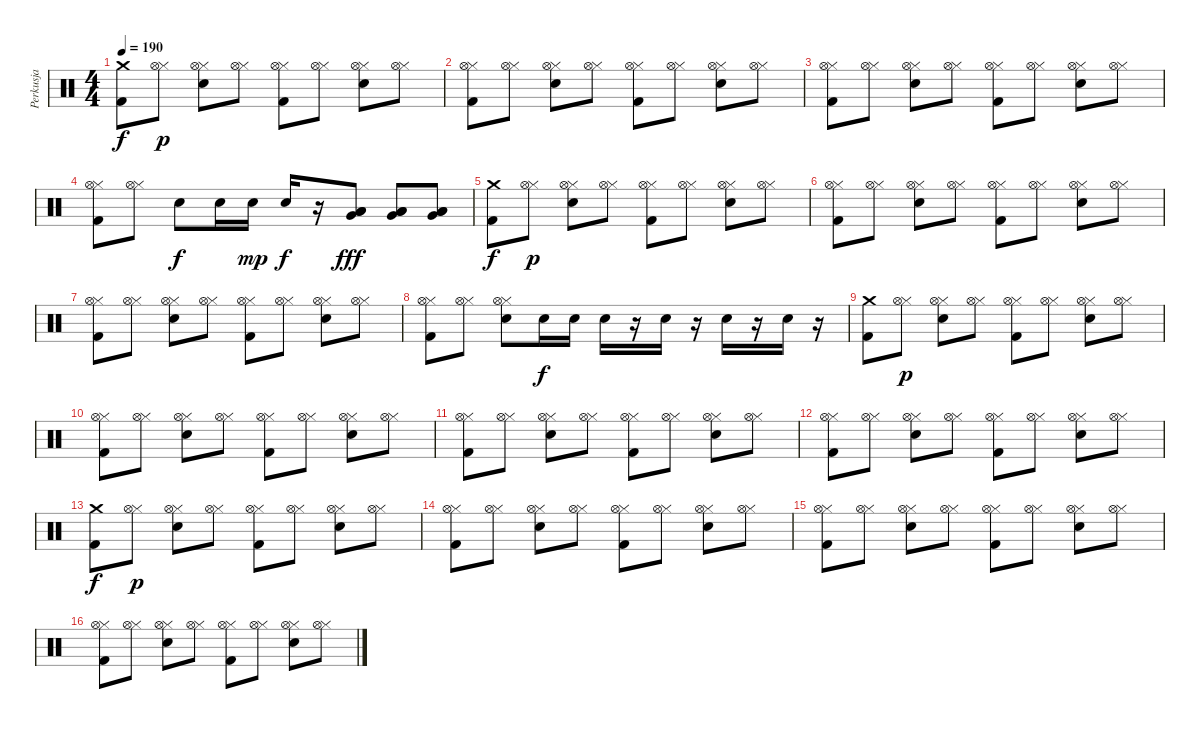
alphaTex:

\track ("Perkusja" "Perkusja") {instrument percussion}
\staff {score}
\articulation defaults
\ts (4 4)
\tempo 190
\clef neutral
\ks c
("Kick (hit) 2" "Crash medium (hit)").8{dy f} ("Hi-Hat (closed)" "Hi-Hat (open)").8{dy p} ("Electric Snare (hit)" "Hi-Hat (closed)" "Hi-Hat (open)").8 ("Hi-Hat (closed)" "Hi-Hat (open)").8 ("Kick (hit) 2" "Hi-Hat (closed)" "Hi-Hat (open)").8 ("Hi-Hat (closed)" "Hi-Hat (open)").8 ("Electric Snare (hit)" "Hi-Hat (closed)" "Hi-Hat (open)").8 ("Hi-Hat (closed)" "Hi-Hat (open)").8 |
("Kick (hit) 2" "Hi-Hat (closed)" "Hi-Hat (open)").8 ("Hi-Hat (closed)" "Hi-Hat (open)").8 ("Electric Snare (hit)" "Hi-Hat (closed)" "Hi-Hat (open)").8 ("Hi-Hat (closed)" "Hi-Hat (open)").8 ("Kick (hit) 2" "Hi-Hat (closed)" "Hi-Hat (open)").8 ("Hi-Hat (closed)" "Hi-Hat (open)").8 ("Electric Snare (hit)" "Hi-Hat (closed)" "Hi-Hat (open)").8 ("Hi-Hat (closed)" "Hi-Hat (open)").8 |
("Kick (hit) 2" "Hi-Hat (closed)" "Hi-Hat (open)").8 ("Hi-Hat (closed)" "Hi-Hat (open)").8 ("Electric Snare (hit)" "Hi-Hat (closed)" "Hi-Hat (open)").8 ("Hi-Hat (closed)" "Hi-Hat (open)").8 ("Kick (hit) 2" "Hi-Hat (closed)" "Hi-Hat (open)").8 ("Hi-Hat (closed)" "Hi-Hat (open)").8 ("Electric Snare (hit)" "Hi-Hat (closed)" "Hi-Hat (open)").8 ("Hi-Hat (closed)" "Hi-Hat (open)").8 |
("Kick (hit) 2" "Hi-Hat (closed)" "Hi-Hat (open)").8 ("Hi-Hat (closed)" "Hi-Hat (open)").8 "Electric Snare (hit)".8{dy f} "Electric Snare (hit)".16 "Electric Snare (hit)".16{dy mp} "Electric Snare (hit)".16{dy f} r.16 ("Very Low Tom (hit)" "Low Tom (hit)" "Low Floor Tom (hit)").8{dy fff} ("Very Low Tom (hit)" "Low Tom (hit)" "Low Floor Tom (hit)").8 ("Very Low Tom (hit)" "Low Tom (hit)" "Low Floor Tom (hit)").8 |
("Kick (hit) 2" "Crash medium (hit)").8{dy f} ("Hi-Hat (closed)" "Hi-Hat (open)").8{dy p} ("Electric Snare (hit)" "Hi-Hat (closed)" "Hi-Hat (open)").8 ("Hi-Hat (closed)" "Hi-Hat (open)").8 ("Kick (hit) 2" "Hi-Hat (closed)" "Hi-Hat (open)").8 ("Hi-Hat (closed)" "Hi-Hat (open)").8 ("Electric Snare (hit)" "Hi-Hat (closed)" "Hi-Hat (open)").8 ("Hi-Hat (closed)" "Hi-Hat (open)").8 |
("Kick (hit) 2" "Hi-Hat (closed)" "Hi-Hat (open)").8 ("Hi-Hat (closed)" "Hi-Hat (open)").8 ("Electric Snare (hit)" "Hi-Hat (closed)" "Hi-Hat (open)").8 ("Hi-Hat (closed)" "Hi-Hat (open)").8 ("Kick (hit) 2" "Hi-Hat (closed)" "Hi-Hat (open)").8 ("Hi-Hat (closed)" "Hi-Hat (open)").8 ("Electric Snare (hit)" "Hi-Hat (closed)" "Hi-Hat (open)").8 ("Hi-Hat (closed)" "Hi-Hat (open)").8 |
("Kick (hit) 2" "Hi-Hat (closed)" "Hi-Hat (open)").8 ("Hi-Hat (closed)" "Hi-Hat (open)").8 ("Electric Snare (hit)" "Hi-Hat (closed)" "Hi-Hat (open)").8 ("Hi-Hat (closed)" "Hi-Hat (open)").8 ("Kick (hit) 2" "Hi-Hat (closed)" "Hi-Hat (open)").8 ("Hi-Hat (closed)" "Hi-Hat (open)").8 ("Electric Snare (hit)" "Hi-Hat (closed)" "Hi-Hat (open)").8 ("Hi-Hat (closed)" "Hi-Hat (open)").8 |
("Kick (hit) 2" "Hi-Hat (closed)" "Hi-Hat (open)").8 ("Hi-Hat (closed)" "Hi-Hat (open)").8 ("Electric Snare (hit)" "Hi-Hat (closed)" "Hi-Hat (open)").8 "Electric Snare (hit)".16{dy f} "Electric Snare (hit)".16 "Electric Snare (hit)".16 r.16 "Electric Snare (hit)".16 r.16 "Electric Snare (hit)".16 r.16 "Electric Snare (hit)".16 r.16 |
("Kick (hit) 2" "Crash medium (hit)").8 ("Hi-Hat (closed)" "Hi-Hat (open)").8{dy p} ("Electric Snare (hit)" "Hi-Hat (closed)" "Hi-Hat (open)").8 ("Hi-Hat (closed)" "Hi-Hat (open)").8 ("Kick (hit) 2" "Hi-Hat (closed)" "Hi-Hat (open)").8 ("Hi-Hat (closed)" "Hi-Hat (open)").8 ("Electric Snare (hit)" "Hi-Hat (closed)" "Hi-Hat (open)").8 ("Hi-Hat (closed)" "Hi-Hat (open)").8 |
("Kick (hit) 2" "Hi-Hat (closed)" "Hi-Hat (open)").8 ("Hi-Hat (closed)" "Hi-Hat (open)").8 ("Electric Snare (hit)" "Hi-Hat (closed)" "Hi-Hat (open)").8 ("Hi-Hat (closed)" "Hi-Hat (open)").8 ("Kick (hit) 2" "Hi-Hat (closed)" "Hi-Hat (open)").8 ("Hi-Hat (closed)" "Hi-Hat (open)").8 ("Electric Snare (hit)" "Hi-Hat (closed)" "Hi-Hat (open)").8 ("Hi-Hat (closed)" "Hi-Hat (open)").8 |
("Kick (hit) 2" "Hi-Hat (closed)" "Hi-Hat (open)").8 ("Hi-Hat (closed)" "Hi-Hat (open)").8 ("Electric Snare (hit)" "Hi-Hat (closed)" "Hi-Hat (open)").8 ("Hi-Hat (closed)" "Hi-Hat (open)").8 ("Kick (hit) 2" "Hi-Hat (closed)" "Hi-Hat (open)").8 ("Hi-Hat (closed)" "Hi-Hat (open)").8 ("Electric Snare (hit)" "Hi-Hat (closed)" "Hi-Hat (open)").8 ("Hi-Hat (closed)" "Hi-Hat (open)").8 |
("Kick (hit) 2" "Hi-Hat (closed)" "Hi-Hat (open)").8 ("Hi-Hat (closed)" "Hi-Hat (open)").8 ("Electric Snare (hit)" "Hi-Hat (closed)" "Hi-Hat (open)").8 ("Hi-Hat (closed)" "Hi-Hat (open)").8 ("Kick (hit) 2" "Hi-Hat (closed)" "Hi-Hat (open)").8 ("Hi-Hat (closed)" "Hi-Hat (open)").8 ("Electric Snare (hit)" "Hi-Hat (closed)" "Hi-Hat (open)").8 ("Hi-Hat (closed)" "Hi-Hat (open)").8 |
("Kick (hit) 2" "Crash medium (hit)").8{dy f} ("Hi-Hat (closed)" "Hi-Hat (open)").8{dy p} ("Electric Snare (hit)" "Hi-Hat (closed)" "Hi-Hat (open)").8 ("Hi-Hat (closed)" "Hi-Hat (open)").8 ("Kick (hit) 2" "Hi-Hat (closed)" "Hi-Hat (open)").8 ("Hi-Hat (closed)" "Hi-Hat (open)").8 ("Electric Snare (hit)" "Hi-Hat (closed)" "Hi-Hat (open)").8 ("Hi-Hat (closed)" "Hi-Hat (open)").8 |
("Kick (hit) 2" "Hi-Hat (closed)" "Hi-Hat (open)").8 ("Hi-Hat (closed)" "Hi-Hat (open)").8 ("Electric Snare (hit)" "Hi-Hat (closed)" "Hi-Hat (open)").8 ("Hi-Hat (closed)" "Hi-Hat (open)").8 ("Kick (hit) 2" "Hi-Hat (closed)" "Hi-Hat (open)").8 ("Hi-Hat (closed)" "Hi-Hat (open)").8 ("Electric Snare (hit)" "Hi-Hat (closed)" "Hi-Hat (open)").8 ("Hi-Hat (closed)" "Hi-Hat (open)").8 |
("Kick (hit) 2" "Hi-Hat (closed)" "Hi-Hat (open)").8 ("Hi-Hat (closed)" "Hi-Hat (open)").8 ("Electric Snare (hit)" "Hi-Hat (closed)" "Hi-Hat (open)").8 ("Hi-Hat (closed)" "Hi-Hat (open)").8 ("Kick (hit) 2" "Hi-Hat (closed)" "Hi-Hat (open)").8 ("Hi-Hat (closed)" "Hi-Hat (open)").8 ("Electric Snare (hit)" "Hi-Hat (closed)" "Hi-Hat (open)").8 ("Hi-Hat (closed)" "Hi-Hat (open)").8 |
("Kick (hit) 2" "Hi-Hat (closed)" "Hi-Hat (open)").8 ("Hi-Hat (closed)" "Hi-Hat (open)").8 ("Electric Snare (hit)" "Hi-Hat (closed)" "Hi-Hat (open)").8 ("Hi-Hat (closed)" "Hi-Hat (open)").8 ("Kick (hit) 2" "Hi-Hat (closed)" "Hi-Hat (open)").8 ("Hi-Hat (closed)" "Hi-Hat (open)").8 ("Electric Snare (hit)" "Hi-Hat (closed)" "Hi-Hat (open)").8 ("Hi-Hat (closed)" "Hi-Hat (open)").8
